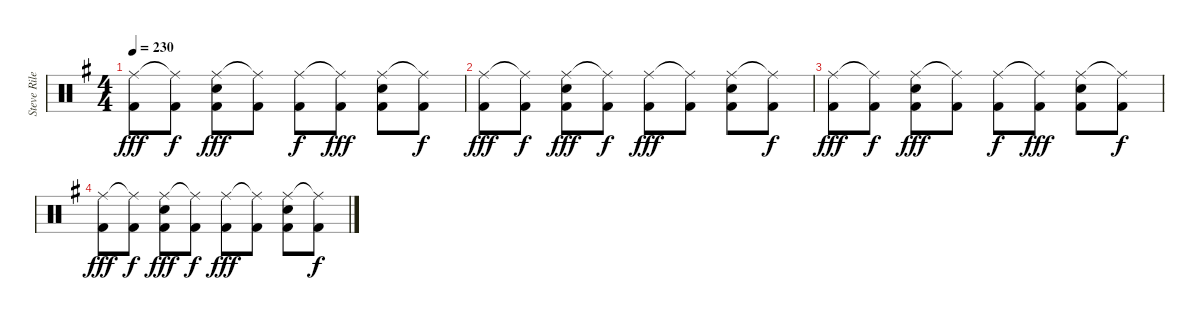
\track ("Steve Riley - Drums" "Steve Rile") {instrument percussion}
\staff {score}
\articulation defaults
\ts (4 4)
\tempo 230
\clef neutral
\ks g
("Ride (middle)" "Kick (hit) 2").8{dy fff} ("Ride (middle)"{t} "Kick (hit) 2").8{dy f} ("Ride (middle)" "Electric Snare (hit)" "Kick (hit) 2").8{dy fff} ("Ride (middle)"{t} "Kick (hit) 2").8 ("Ride (middle)" "Kick (hit) 2").8{dy f} ("Ride (middle)"{t} "Kick (hit) 2").8{dy fff} ("Ride (middle)" "Electric Snare (hit)" "Kick (hit) 2").8 ("Ride (middle)"{t} "Kick (hit) 2").8{dy f} |
("Ride (middle)" "Kick (hit) 2").8{dy fff} ("Ride (middle)"{t} "Kick (hit) 2").8{dy f} ("Ride (middle)" "Electric Snare (hit)" "Kick (hit) 2").8{dy fff} ("Ride (middle)"{t} "Kick (hit) 2").8{dy f} ("Ride (middle)" "Kick (hit) 2").8{dy fff} ("Ride (middle)"{t} "Kick (hit) 2").8 ("Ride (middle)" "Electric Snare (hit)" "Kick (hit) 2").8 ("Ride (middle)"{t} "Kick (hit) 2").8{dy f} |
("Ride (middle)" "Kick (hit) 2").8{dy fff} ("Ride (middle)"{t} "Kick (hit) 2").8{dy f} ("Ride (middle)" "Electric Snare (hit)" "Kick (hit) 2").8{dy fff} ("Ride (middle)"{t} "Kick (hit) 2").8 ("Ride (middle)" "Kick (hit) 2").8{dy f} ("Ride (middle)"{t} "Kick (hit) 2").8{dy fff} ("Ride (middle)" "Electric Snare (hit)" "Kick (hit) 2").8 ("Ride (middle)"{t} "Kick (hit) 2").8{dy f} |
("Ride (middle)" "Kick (hit) 2").8{dy fff} ("Ride (middle)"{t} "Kick (hit) 2").8{dy f} ("Ride (middle)" "Electric Snare (hit)" "Kick (hit) 2").8{dy fff} ("Ride (middle)"{t} "Kick (hit) 2").8{dy f} ("Ride (middle)" "Kick (hit) 2").8{dy fff} ("Ride (middle)"{t} "Kick (hit) 2").8 ("Ride (middle)" "Electric Snare (hit)" "Kick (hit) 2").8 ("Ride (middle)"{t} "Kick (hit) 2").8{dy f}
